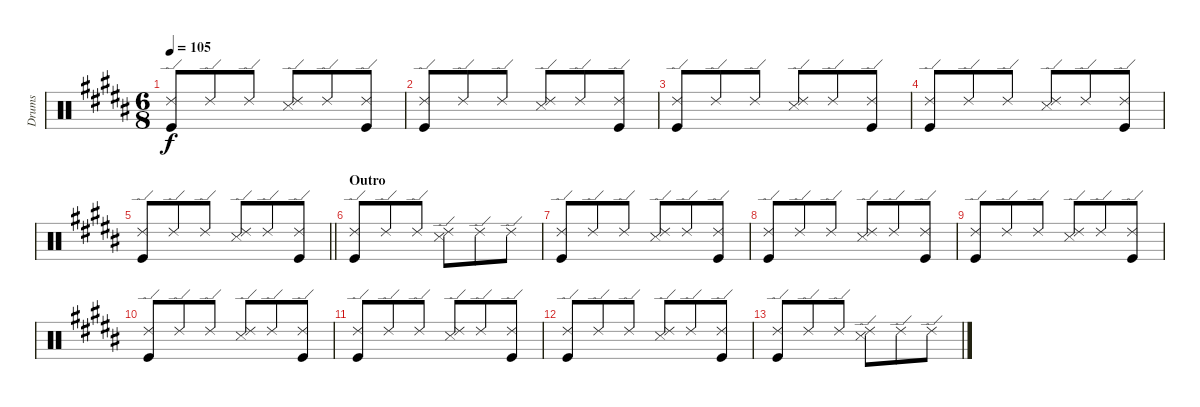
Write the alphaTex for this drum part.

\track ("Drums" "Drums") {instrument percussion}
\staff {score}
\articulation defaults
\ts (6 8)
\tempo 105
\clef neutral
\ks b
("Ride (edge) 2" "Kick (hit)").8{dy f} "Ride (edge) 2".8 "Ride (edge) 2".8 ("Ride (edge) 2" "Snare (side stick) 3").8 "Ride (edge) 2".8 ("Ride (edge) 2" "Kick (hit)").8 |
("Ride (edge) 2" "Kick (hit)").8 "Ride (edge) 2".8 "Ride (edge) 2".8 ("Ride (edge) 2" "Snare (side stick) 3").8 "Ride (edge) 2".8 ("Ride (edge) 2" "Kick (hit)").8 |
("Ride (edge) 2" "Kick (hit)").8 "Ride (edge) 2".8 "Ride (edge) 2".8 ("Ride (edge) 2" "Snare (side stick) 3").8 "Ride (edge) 2".8 ("Ride (edge) 2" "Kick (hit)").8 |
("Ride (edge) 2" "Kick (hit)").8 "Ride (edge) 2".8 "Ride (edge) 2".8 ("Ride (edge) 2" "Snare (side stick) 3").8 "Ride (edge) 2".8 ("Ride (edge) 2" "Kick (hit)").8 |
\barLineRight lightlight
("Ride (edge) 2" "Kick (hit)").8 "Ride (edge) 2".8 "Ride (edge) 2".8 ("Ride (edge) 2" "Snare (side stick) 3").8 "Ride (edge) 2".8 ("Ride (edge) 2" "Kick (hit)").8 |
\section ("" "Outro")
("Ride (edge) 2" "Kick (hit)").8 "Ride (edge) 2".8 "Ride (edge) 2".8 ("Ride (edge) 2" "Snare (side stick) 3").8 "Ride (edge) 2".8 "Ride (edge) 2".8 |
("Ride (edge) 2" "Kick (hit)").8 "Ride (edge) 2".8 "Ride (edge) 2".8 ("Ride (edge) 2" "Snare (side stick) 3").8 "Ride (edge) 2".8 ("Ride (edge) 2" "Kick (hit)").8 |
("Ride (edge) 2" "Kick (hit)").8 "Ride (edge) 2".8 "Ride (edge) 2".8 ("Ride (edge) 2" "Snare (side stick) 3").8 "Ride (edge) 2".8 ("Ride (edge) 2" "Kick (hit)").8 |
("Ride (edge) 2" "Kick (hit)").8 "Ride (edge) 2".8 "Ride (edge) 2".8 ("Ride (edge) 2" "Snare (side stick) 3").8 "Ride (edge) 2".8 ("Ride (edge) 2" "Kick (hit)").8 |
("Ride (edge) 2" "Kick (hit)").8{volume 0} "Ride (edge) 2".8 "Ride (edge) 2".8 ("Ride (edge) 2" "Snare (side stick) 3").8 "Ride (edge) 2".8 ("Ride (edge) 2" "Kick (hit)").8 |
("Ride (edge) 2" "Kick (hit)").8 "Ride (edge) 2".8 "Ride (edge) 2".8 ("Ride (edge) 2" "Snare (side stick) 3").8 "Ride (edge) 2".8 ("Ride (edge) 2" "Kick (hit)").8 |
("Ride (edge) 2" "Kick (hit)").8 "Ride (edge) 2".8 "Ride (edge) 2".8 ("Ride (edge) 2" "Snare (side stick) 3").8 "Ride (edge) 2".8 ("Ride (edge) 2" "Kick (hit)").8 |
("Ride (edge) 2" "Kick (hit)").8 "Ride (edge) 2".8 "Ride (edge) 2".8 ("Ride (edge) 2" "Snare (side stick) 3").8 "Ride (edge) 2".8 "Ride (edge) 2".8
